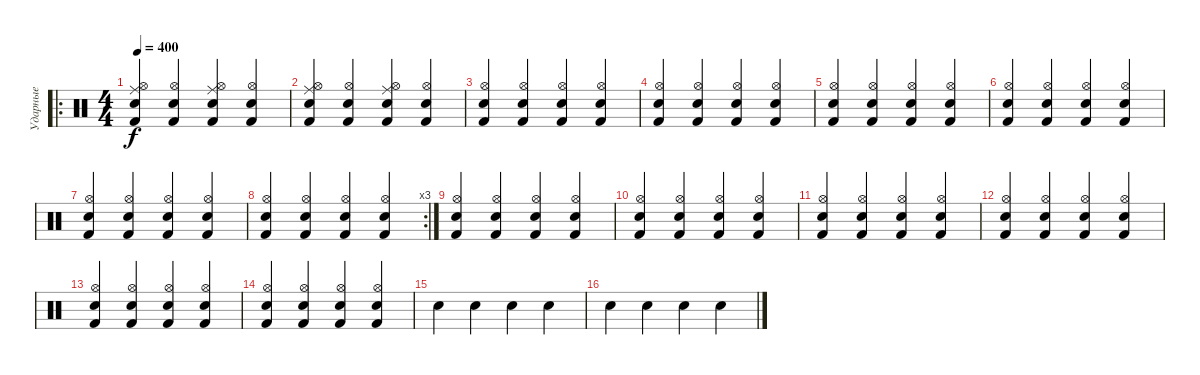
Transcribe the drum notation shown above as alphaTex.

\track ("Ударные" "Ударные") {instrument percussion}
\staff {score}
\articulation defaults
\ro
\ts (4 4)
\tempo 400
\clef neutral
\ks c
("Electric Snare (hit)" "Hi-Hat (open)" "Ride (middle)" "Kick (hit) 2").4{dy f} ("Hi-Hat (open)" "Kick (hit) 2" "Electric Snare (hit)").4 ("Electric Snare (hit)" "Kick (hit) 2" "Hi-Hat (open)" "Ride (middle)").4 ("Hi-Hat (open)" "Kick (hit) 2" "Electric Snare (hit)").4 |
("Electric Snare (hit)" "Hi-Hat (open)" "Ride (middle)" "Kick (hit) 2").4 ("Hi-Hat (open)" "Kick (hit) 2" "Electric Snare (hit)").4 ("Electric Snare (hit)" "Kick (hit) 2" "Hi-Hat (open)" "Ride (middle)").4 ("Hi-Hat (open)" "Kick (hit) 2" "Electric Snare (hit)").4 |
("Electric Snare (hit)" "Hi-Hat (open)" "Kick (hit) 2").4 ("Hi-Hat (open)" "Kick (hit) 2" "Electric Snare (hit)").4 ("Electric Snare (hit)" "Kick (hit) 2" "Hi-Hat (open)").4 ("Hi-Hat (open)" "Kick (hit) 2" "Electric Snare (hit)").4 |
("Electric Snare (hit)" "Hi-Hat (open)" "Kick (hit) 2").4 ("Hi-Hat (open)" "Kick (hit) 2" "Electric Snare (hit)").4 ("Electric Snare (hit)" "Kick (hit) 2" "Hi-Hat (open)").4 ("Hi-Hat (open)" "Kick (hit) 2" "Electric Snare (hit)").4 |
("Electric Snare (hit)" "Hi-Hat (open)" "Kick (hit) 2").4 ("Hi-Hat (open)" "Kick (hit) 2" "Electric Snare (hit)").4 ("Electric Snare (hit)" "Kick (hit) 2" "Hi-Hat (open)").4 ("Hi-Hat (open)" "Kick (hit) 2" "Electric Snare (hit)").4 |
("Electric Snare (hit)" "Hi-Hat (open)" "Kick (hit) 2").4 ("Hi-Hat (open)" "Kick (hit) 2" "Electric Snare (hit)").4 ("Electric Snare (hit)" "Kick (hit) 2" "Hi-Hat (open)").4 ("Hi-Hat (open)" "Kick (hit) 2" "Electric Snare (hit)").4 |
("Electric Snare (hit)" "Hi-Hat (open)" "Kick (hit) 2").4 ("Hi-Hat (open)" "Kick (hit) 2" "Electric Snare (hit)").4 ("Electric Snare (hit)" "Kick (hit) 2" "Hi-Hat (open)").4 ("Hi-Hat (open)" "Kick (hit) 2" "Electric Snare (hit)").4 |
\rc 3
("Electric Snare (hit)" "Hi-Hat (open)" "Kick (hit) 2").4 ("Hi-Hat (open)" "Kick (hit) 2" "Electric Snare (hit)").4 ("Electric Snare (hit)" "Kick (hit) 2" "Hi-Hat (open)").4 ("Hi-Hat (open)" "Kick (hit) 2" "Electric Snare (hit)").4 |
("Electric Snare (hit)" "Hi-Hat (open)" "Kick (hit) 2").4 ("Hi-Hat (open)" "Kick (hit) 2" "Electric Snare (hit)").4 ("Electric Snare (hit)" "Kick (hit) 2" "Hi-Hat (open)").4 ("Hi-Hat (open)" "Kick (hit) 2" "Electric Snare (hit)").4 |
("Electric Snare (hit)" "Hi-Hat (open)" "Kick (hit) 2").4 ("Hi-Hat (open)" "Kick (hit) 2" "Electric Snare (hit)").4 ("Electric Snare (hit)" "Kick (hit) 2" "Hi-Hat (open)").4 ("Hi-Hat (open)" "Kick (hit) 2" "Electric Snare (hit)").4 |
("Electric Snare (hit)" "Hi-Hat (open)" "Kick (hit) 2").4 ("Hi-Hat (open)" "Kick (hit) 2" "Electric Snare (hit)").4 ("Electric Snare (hit)" "Kick (hit) 2" "Hi-Hat (open)").4 ("Hi-Hat (open)" "Kick (hit) 2" "Electric Snare (hit)").4 |
("Electric Snare (hit)" "Hi-Hat (open)" "Kick (hit) 2").4 ("Hi-Hat (open)" "Kick (hit) 2" "Electric Snare (hit)").4 ("Electric Snare (hit)" "Kick (hit) 2" "Hi-Hat (open)").4 ("Hi-Hat (open)" "Kick (hit) 2" "Electric Snare (hit)").4 |
("Electric Snare (hit)" "Hi-Hat (open)" "Kick (hit) 2").4 ("Hi-Hat (open)" "Kick (hit) 2" "Electric Snare (hit)").4 ("Electric Snare (hit)" "Kick (hit) 2" "Hi-Hat (open)").4 ("Hi-Hat (open)" "Kick (hit) 2" "Electric Snare (hit)").4 |
("Electric Snare (hit)" "Hi-Hat (open)" "Kick (hit) 2").4 ("Hi-Hat (open)" "Kick (hit) 2" "Electric Snare (hit)").4 ("Electric Snare (hit)" "Kick (hit) 2" "Hi-Hat (open)").4 ("Hi-Hat (open)" "Kick (hit) 2" "Electric Snare (hit)").4 |
"Electric Snare (hit)".4 "Electric Snare (hit)".4 "Electric Snare (hit)".4 "Electric Snare (hit)".4 |
"Electric Snare (hit)".4 "Electric Snare (hit)".4 "Electric Snare (hit)".4 "Electric Snare (hit)".4
